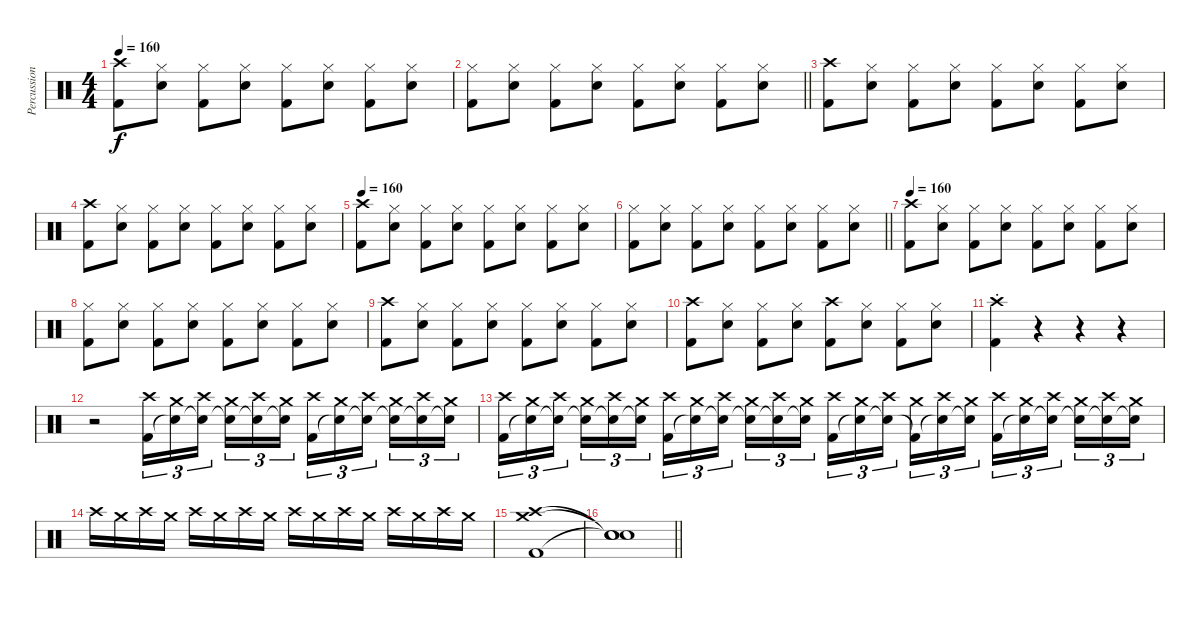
\track ("Percussion" "Percussion") {instrument percussion}
\staff {score}
\articulation defaults
\ts (4 4)
\tempo 160
\clef neutral
\ks c
("Crash high (hit)" "Kick (hit) 2").8{dy f} ("Hi-Hat (closed)" "Snare (hit) 2").8 ("Hi-Hat (closed)" "Kick (hit) 2").8 ("Hi-Hat (closed)" "Snare (hit) 2").8 ("Hi-Hat (closed)" "Kick (hit) 2").8 ("Hi-Hat (closed)" "Snare (hit) 2").8 ("Hi-Hat (closed)" "Kick (hit) 2").8 ("Hi-Hat (closed)" "Snare (hit) 2").8 |
\barLineRight lightlight
("Hi-Hat (closed)" "Kick (hit) 2").8 ("Hi-Hat (closed)" "Snare (hit) 2").8 ("Hi-Hat (closed)" "Kick (hit) 2").8 ("Hi-Hat (closed)" "Snare (hit) 2").8 ("Hi-Hat (closed)" "Kick (hit) 2").8 ("Hi-Hat (closed)" "Snare (hit) 2").8 ("Hi-Hat (closed)" "Kick (hit) 2").8 ("Hi-Hat (closed)" "Snare (hit) 2").8 |
("Crash high (hit)" "Kick (hit) 2").8 ("Hi-Hat (closed)" "Snare (hit) 2").8 ("Hi-Hat (closed)" "Kick (hit) 2").8 ("Hi-Hat (closed)" "Snare (hit) 2").8 ("Hi-Hat (closed)" "Kick (hit) 2").8 ("Hi-Hat (closed)" "Snare (hit) 2").8 ("Hi-Hat (closed)" "Kick (hit) 2").8 ("Hi-Hat (closed)" "Snare (hit) 2").8 |
("Crash high (hit)" "Kick (hit) 2").8 ("Hi-Hat (closed)" "Snare (hit) 2").8 ("Hi-Hat (closed)" "Kick (hit) 2").8 ("Hi-Hat (closed)" "Snare (hit) 2").8 ("Hi-Hat (closed)" "Kick (hit) 2").8 ("Hi-Hat (closed)" "Snare (hit) 2").8 ("Hi-Hat (closed)" "Kick (hit) 2").8 ("Hi-Hat (closed)" "Snare (hit) 2").8 |
\tempo 160
("Crash high (hit)" "Kick (hit) 2").8 ("Hi-Hat (closed)" "Snare (hit) 2").8 ("Hi-Hat (closed)" "Kick (hit) 2").8 ("Hi-Hat (closed)" "Snare (hit) 2").8 ("Hi-Hat (closed)" "Kick (hit) 2").8 ("Hi-Hat (closed)" "Snare (hit) 2").8 ("Hi-Hat (closed)" "Kick (hit) 2").8 ("Hi-Hat (closed)" "Snare (hit) 2").8 |
\barLineRight lightlight
("Hi-Hat (closed)" "Kick (hit) 2").8 ("Hi-Hat (closed)" "Snare (hit) 2").8 ("Hi-Hat (closed)" "Kick (hit) 2").8 ("Hi-Hat (closed)" "Snare (hit) 2").8 ("Hi-Hat (closed)" "Kick (hit) 2").8 ("Hi-Hat (closed)" "Snare (hit) 2").8 ("Hi-Hat (closed)" "Kick (hit) 2").8 ("Hi-Hat (closed)" "Snare (hit) 2").8 |
\tempo 160
("Crash high (hit)" "Kick (hit) 2").8 ("Hi-Hat (closed)" "Snare (hit) 2").8 ("Hi-Hat (closed)" "Kick (hit) 2").8 ("Hi-Hat (closed)" "Snare (hit) 2").8 ("Hi-Hat (closed)" "Kick (hit) 2").8 ("Hi-Hat (closed)" "Snare (hit) 2").8 ("Hi-Hat (closed)" "Kick (hit) 2").8 ("Hi-Hat (closed)" "Snare (hit) 2").8 |
("Hi-Hat (closed)" "Kick (hit) 2").8 ("Hi-Hat (closed)" "Snare (hit) 2").8 ("Hi-Hat (closed)" "Kick (hit) 2").8 ("Hi-Hat (closed)" "Snare (hit) 2").8 ("Hi-Hat (closed)" "Kick (hit) 2").8 ("Hi-Hat (closed)" "Snare (hit) 2").8 ("Hi-Hat (closed)" "Kick (hit) 2").8 ("Hi-Hat (closed)" "Snare (hit) 2").8 |
("Crash high (hit)" "Kick (hit) 2").8 ("Hi-Hat (closed)" "Snare (hit) 2").8 ("Hi-Hat (closed)" "Kick (hit) 2").8 ("Hi-Hat (closed)" "Snare (hit) 2").8 ("Hi-Hat (closed)" "Kick (hit) 2").8 ("Hi-Hat (closed)" "Snare (hit) 2").8 ("Hi-Hat (closed)" "Kick (hit) 2").8 ("Hi-Hat (closed)" "Snare (hit) 2").8 |
("Crash high (hit)" "Kick (hit) 2").8 ("Hi-Hat (closed)" "Snare (hit) 2").8 ("Hi-Hat (closed)" "Kick (hit) 2").8 ("Hi-Hat (closed)" "Snare (hit) 2").8 ("Crash high (hit)" "Kick (hit) 2").8 ("Hi-Hat (closed)" "Snare (hit) 2").8 ("Hi-Hat (closed)" "Kick (hit) 2").8 ("Hi-Hat (closed)" "Snare (hit) 2").8 |
("Crash high (hit)"{st} "Kick (hit) 2").4 r.4 r.4 r.4 |
r.2 ("Crash high (hit)" "Kick (hit) 2").16{tu (3 2)} ("Crash medium (hit)" "Snare (hit)"{t}).16{tu (3 2)} ("Crash high (hit)" "Snare (hit)"{t}).16{tu (3 2) beam splitsecondary} ("Crash medium (hit)" "Snare (hit)"{t}).16{tu (3 2)} ("Crash high (hit)" "Snare (hit)"{t}).16{tu (3 2)} ("Crash medium (hit)" "Snare (hit)"{t}).16{tu (3 2)} ("Crash high (hit)" "Kick (hit) 2").16{tu (3 2)} ("Crash medium (hit)" "Snare (hit)"{t}).16{tu (3 2)} ("Crash high (hit)" "Snare (hit)"{t}).16{tu (3 2) beam splitsecondary} ("Crash medium (hit)" "Snare (hit)"{t}).16{tu (3 2)} ("Crash high (hit)" "Snare (hit)"{t}).16{tu (3 2)} ("Crash medium (hit)" "Snare (hit)"{t}).16{tu (3 2)} |
("Crash high (hit)" "Kick (hit) 2").16{tu (3 2)} ("Crash medium (hit)" "Snare (hit)"{t}).16{tu (3 2)} ("Crash high (hit)" "Snare (hit)"{t}).16{tu (3 2) beam splitsecondary} ("Crash medium (hit)" "Snare (hit)"{t}).16{tu (3 2)} ("Crash high (hit)" "Snare (hit)"{t}).16{tu (3 2)} ("Crash medium (hit)" "Snare (hit)"{t}).16{tu (3 2)} ("Crash high (hit)" "Kick (hit) 2").16{tu (3 2)} ("Crash medium (hit)" "Snare (hit)"{t}).16{tu (3 2)} ("Crash high (hit)" "Snare (hit)"{t}).16{tu (3 2) beam splitsecondary} ("Crash medium (hit)" "Snare (hit)"{t}).16{tu (3 2)} ("Crash high (hit)" "Snare (hit)"{t}).16{tu (3 2)} ("Crash medium (hit)" "Snare (hit)"{t}).16{tu (3 2)} ("Crash high (hit)" "Kick (hit) 2").16{tu (3 2)} ("Crash medium (hit)" "Snare (hit)"{t}).16{tu (3 2)} ("Crash high (hit)" "Snare (hit)"{t}).16{tu (3 2) beam splitsecondary} ("Crash medium (hit)" "Kick (hit) 2"{t}).16{tu (3 2)} ("Crash high (hit)" "Snare (hit)"{t}).16{tu (3 2)} ("Crash medium (hit)" "Snare (hit)"{t}).16{tu (3 2)} ("Crash high (hit)" "Kick (hit) 2").16{tu (3 2)} ("Crash medium (hit)" "Snare (hit)"{t}).16{tu (3 2)} ("Crash high (hit)" "Snare (hit)"{t}).16{tu (3 2) beam splitsecondary} ("Crash medium (hit)" "Snare (hit)"{t}).16{tu (3 2)} ("Crash high (hit)" "Snare (hit)"{t}).16{tu (3 2)} ("Crash medium (hit)" "Snare (hit)"{t}).16{tu (3 2)} |
"Crash high (hit)".16 "Crash medium (hit)".16 "Crash high (hit)".16 "Crash medium (hit)".16 "Crash high (hit)".16 "Crash medium (hit)".16 "Crash high (hit)".16 "Crash medium (hit)".16 "Crash high (hit)".16 "Crash medium (hit)".16 "Crash high (hit)".16 "Crash medium (hit)".16 "Crash high (hit)".16 "Crash medium (hit)".16 "Crash high (hit)".16 "Crash medium (hit)".16 |
("Crash medium (hit)" "Crash high (hit)" "Kick (hit) 2").1{volume 0} |
\barLineRight lightlight
("Snare (hit)"{t} "Snare (hit)"{t} "Snare (hit)"{t}).1
